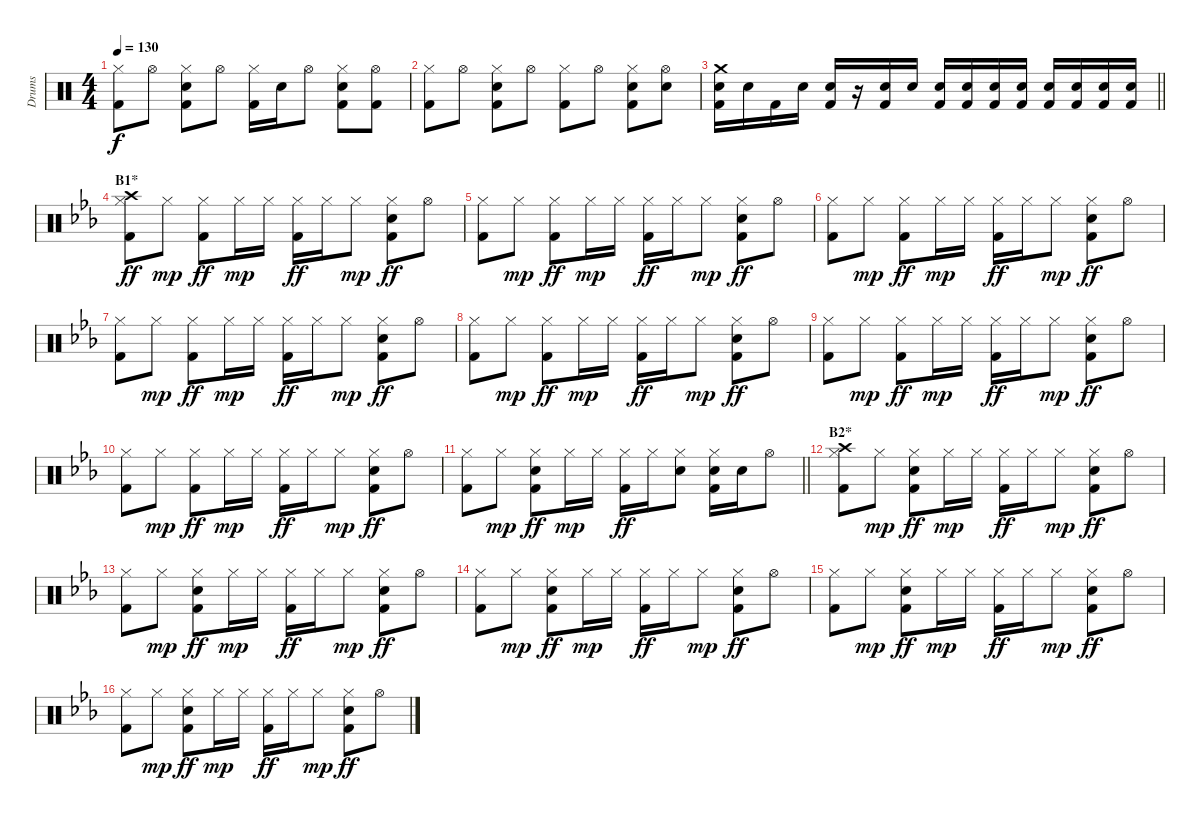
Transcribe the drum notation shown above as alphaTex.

\track ("Drums" "Drums") {instrument percussion}
\staff {score}
\articulation defaults
\ts (4 4)
\tempo 130
\clef neutral
\ks c
("Hi-Hat (closed)" "Kick (hit) 2").8{dy f} "Hi-Hat (open)".8 ("Hi-Hat (closed)" "Electric Snare (hit)" "Kick (hit) 2").8 "Hi-Hat (open)".8 ("Hi-Hat (closed)" "Kick (hit) 2").16 "Electric Snare (hit)".16 "Hi-Hat (open)".8 ("Hi-Hat (closed)" "Electric Snare (hit)" "Kick (hit) 2").8 ("Hi-Hat (open)" "Kick (hit) 2").8 |
("Hi-Hat (closed)" "Kick (hit) 2").8 "Hi-Hat (open)".8 ("Hi-Hat (closed)" "Electric Snare (hit)" "Kick (hit) 2").8 "Hi-Hat (open)".8 ("Hi-Hat (closed)" "Kick (hit) 2").8 "Hi-Hat (open)".8 ("Hi-Hat (closed)" "Electric Snare (hit)" "Kick (hit) 2").8 ("Hi-Hat (open)" "Electric Snare (hit)").8 |
\barLineRight lightlight
("Crash medium (hit)" "Electric Snare (hit)" "Kick (hit) 2").16 "Electric Snare (hit)".16 "Kick (hit) 2".16 "Electric Snare (hit)".16 ("Electric Snare (hit)" "Kick (hit) 2").16 r.16 ("Electric Snare (hit)" "Kick (hit) 2").16 "Electric Snare (hit)".16 ("Electric Snare (hit)" "Kick (hit) 2").16 ("Electric Snare (hit)" "Kick (hit) 2").16 ("Electric Snare (hit)" "Kick (hit) 2").16 ("Electric Snare (hit)" "Kick (hit) 2").16 ("Electric Snare (hit)" "Kick (hit) 2").16 ("Electric Snare (hit)" "Kick (hit) 2").16 ("Electric Snare (hit)" "Kick (hit) 2").16 ("Electric Snare (hit)" "Kick (hit) 2").16 |
\section ("" "B1*")
\ks eb
("Hi-Hat (closed)" "Crash high (hit)" "Kick (hit) 2").8{dy ff} "Hi-Hat (closed)".8{dy mp} ("Hi-Hat (closed)" "Kick (hit) 2").8{dy ff} "Hi-Hat (closed)".16{dy mp} "Hi-Hat (closed)".16 ("Hi-Hat (closed)" "Kick (hit) 2").16{dy ff} "Hi-Hat (closed)".16 "Hi-Hat (closed)".8{dy mp} ("Hi-Hat (closed)" "Electric Snare (hit)" "Kick (hit) 2").8{dy ff} "Hi-Hat (open)".8 |
("Hi-Hat (closed)" "Kick (hit) 2").8 "Hi-Hat (closed)".8{dy mp} ("Hi-Hat (closed)" "Kick (hit) 2").8{dy ff} "Hi-Hat (closed)".16{dy mp} "Hi-Hat (closed)".16 ("Hi-Hat (closed)" "Kick (hit) 2").16{dy ff} "Hi-Hat (closed)".16 "Hi-Hat (closed)".8{dy mp} ("Hi-Hat (closed)" "Electric Snare (hit)" "Kick (hit) 2").8{dy ff} "Hi-Hat (open)".8 |
("Hi-Hat (closed)" "Kick (hit) 2").8 "Hi-Hat (closed)".8{dy mp} ("Hi-Hat (closed)" "Kick (hit) 2").8{dy ff} "Hi-Hat (closed)".16{dy mp} "Hi-Hat (closed)".16 ("Hi-Hat (closed)" "Kick (hit) 2").16{dy ff} "Hi-Hat (closed)".16 "Hi-Hat (closed)".8{dy mp} ("Hi-Hat (closed)" "Electric Snare (hit)" "Kick (hit) 2").8{dy ff} "Hi-Hat (open)".8 |
("Hi-Hat (closed)" "Kick (hit) 2").8 "Hi-Hat (closed)".8{dy mp} ("Hi-Hat (closed)" "Kick (hit) 2").8{dy ff} "Hi-Hat (closed)".16{dy mp} "Hi-Hat (closed)".16 ("Hi-Hat (closed)" "Kick (hit) 2").16{dy ff} "Hi-Hat (closed)".16 "Hi-Hat (closed)".8{dy mp} ("Hi-Hat (closed)" "Electric Snare (hit)" "Kick (hit) 2").8{dy ff} "Hi-Hat (open)".8 |
("Hi-Hat (closed)" "Kick (hit) 2").8 "Hi-Hat (closed)".8{dy mp} ("Hi-Hat (closed)" "Kick (hit) 2").8{dy ff} "Hi-Hat (closed)".16{dy mp} "Hi-Hat (closed)".16 ("Hi-Hat (closed)" "Kick (hit) 2").16{dy ff} "Hi-Hat (closed)".16 "Hi-Hat (closed)".8{dy mp} ("Hi-Hat (closed)" "Electric Snare (hit)" "Kick (hit) 2").8{dy ff} "Hi-Hat (open)".8 |
("Hi-Hat (closed)" "Kick (hit) 2").8 "Hi-Hat (closed)".8{dy mp} ("Hi-Hat (closed)" "Kick (hit) 2").8{dy ff} "Hi-Hat (closed)".16{dy mp} "Hi-Hat (closed)".16 ("Hi-Hat (closed)" "Kick (hit) 2").16{dy ff} "Hi-Hat (closed)".16 "Hi-Hat (closed)".8{dy mp} ("Hi-Hat (closed)" "Electric Snare (hit)" "Kick (hit) 2").8{dy ff} "Hi-Hat (open)".8 |
("Hi-Hat (closed)" "Kick (hit) 2").8 "Hi-Hat (closed)".8{dy mp} ("Hi-Hat (closed)" "Kick (hit) 2").8{dy ff} "Hi-Hat (closed)".16{dy mp} "Hi-Hat (closed)".16 ("Hi-Hat (closed)" "Kick (hit) 2").16{dy ff} "Hi-Hat (closed)".16 "Hi-Hat (closed)".8{dy mp} ("Hi-Hat (closed)" "Electric Snare (hit)" "Kick (hit) 2").8{dy ff} "Hi-Hat (open)".8 |
\barLineRight lightlight
("Hi-Hat (closed)" "Kick (hit) 2").8 "Hi-Hat (closed)".8{dy mp} ("Hi-Hat (closed)" "Electric Snare (hit)" "Kick (hit) 2").8{dy ff} "Hi-Hat (closed)".16{dy mp} "Hi-Hat (closed)".16 ("Hi-Hat (closed)" "Kick (hit) 2").16{dy ff} "Hi-Hat (closed)".16 ("Hi-Hat (closed)" "Electric Snare (hit)").8 ("Hi-Hat (closed)" "Electric Snare (hit)" "Kick (hit) 2").16 "Electric Snare (hit)".16 "Hi-Hat (open)".8 |
\section ("" "B2*")
("Hi-Hat (closed)" "Crash high (hit)" "Kick (hit) 2").8 "Hi-Hat (closed)".8{dy mp} ("Hi-Hat (closed)" "Electric Snare (hit)" "Kick (hit) 2").8{dy ff} "Hi-Hat (closed)".16{dy mp} "Hi-Hat (closed)".16 ("Hi-Hat (closed)" "Kick (hit) 2").16{dy ff} "Hi-Hat (closed)".16 "Hi-Hat (closed)".8{dy mp} ("Hi-Hat (closed)" "Electric Snare (hit)" "Kick (hit) 2").8{dy ff} "Hi-Hat (open)".8 |
("Hi-Hat (closed)" "Kick (hit) 2").8 "Hi-Hat (closed)".8{dy mp} ("Hi-Hat (closed)" "Electric Snare (hit)" "Kick (hit) 2").8{dy ff} "Hi-Hat (closed)".16{dy mp} "Hi-Hat (closed)".16 ("Hi-Hat (closed)" "Kick (hit) 2").16{dy ff} "Hi-Hat (closed)".16 "Hi-Hat (closed)".8{dy mp} ("Hi-Hat (closed)" "Electric Snare (hit)" "Kick (hit) 2").8{dy ff} "Hi-Hat (open)".8 |
("Hi-Hat (closed)" "Kick (hit) 2").8 "Hi-Hat (closed)".8{dy mp} ("Hi-Hat (closed)" "Electric Snare (hit)" "Kick (hit) 2").8{dy ff} "Hi-Hat (closed)".16{dy mp} "Hi-Hat (closed)".16 ("Hi-Hat (closed)" "Kick (hit) 2").16{dy ff} "Hi-Hat (closed)".16 "Hi-Hat (closed)".8{dy mp} ("Hi-Hat (closed)" "Electric Snare (hit)" "Kick (hit) 2").8{dy ff} "Hi-Hat (open)".8 |
("Hi-Hat (closed)" "Kick (hit) 2").8 "Hi-Hat (closed)".8{dy mp} ("Hi-Hat (closed)" "Electric Snare (hit)" "Kick (hit) 2").8{dy ff} "Hi-Hat (closed)".16{dy mp} "Hi-Hat (closed)".16 ("Hi-Hat (closed)" "Kick (hit) 2").16{dy ff} "Hi-Hat (closed)".16 "Hi-Hat (closed)".8{dy mp} ("Hi-Hat (closed)" "Electric Snare (hit)" "Kick (hit) 2").8{dy ff} "Hi-Hat (open)".8 |
("Hi-Hat (closed)" "Kick (hit) 2").8 "Hi-Hat (closed)".8{dy mp} ("Hi-Hat (closed)" "Electric Snare (hit)" "Kick (hit) 2").8{dy ff} "Hi-Hat (closed)".16{dy mp} "Hi-Hat (closed)".16 ("Hi-Hat (closed)" "Kick (hit) 2").16{dy ff} "Hi-Hat (closed)".16 "Hi-Hat (closed)".8{dy mp} ("Hi-Hat (closed)" "Electric Snare (hit)" "Kick (hit) 2").8{dy ff} "Hi-Hat (open)".8
